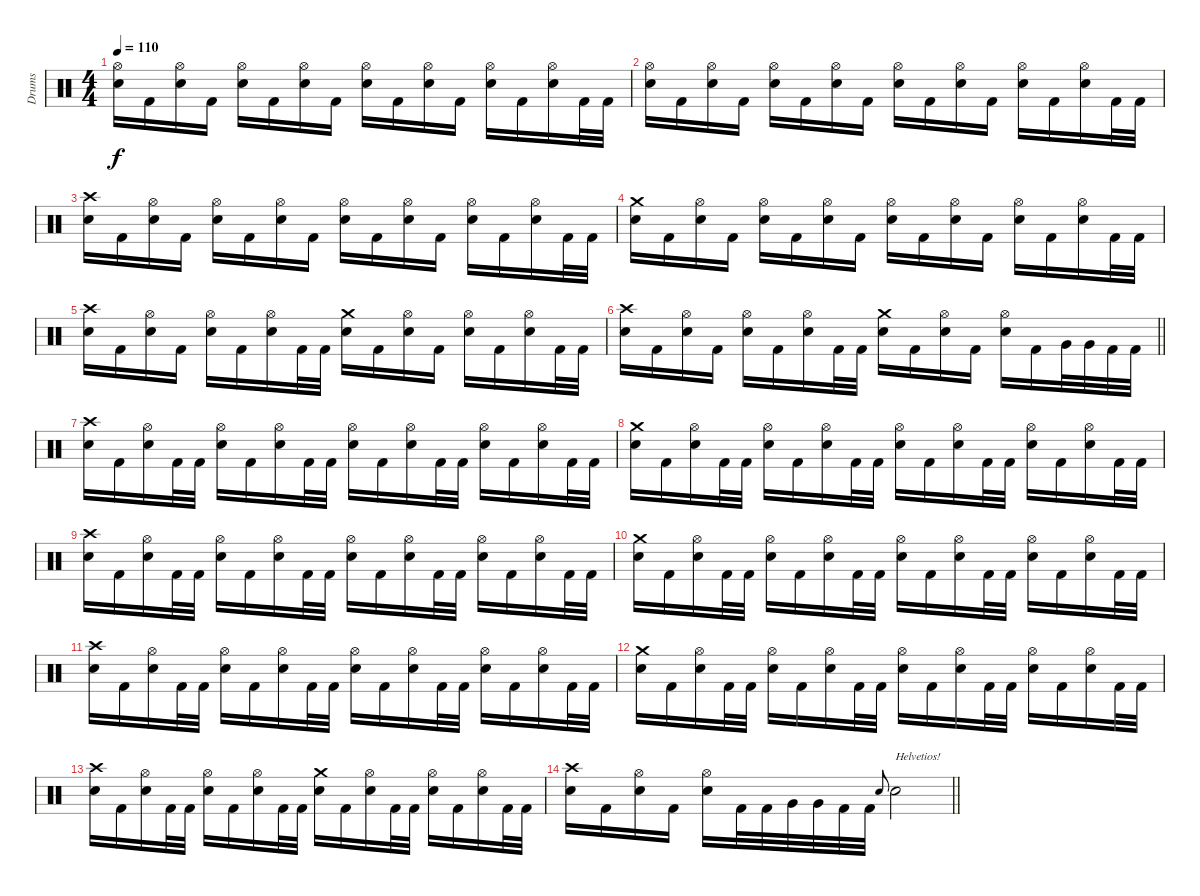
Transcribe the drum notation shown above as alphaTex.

\track ("Drums" "Drums") {instrument percussion}
\staff {score}
\articulation defaults
\ts (4 4)
\tempo 110
\clef neutral
\ks c
("Hi-Hat (open)" "Electric Snare (hit)").16{dy f} "Kick (hit) 2".16 ("Hi-Hat (open)" "Electric Snare (hit)").16 "Kick (hit) 2".16 ("Hi-Hat (open)" "Electric Snare (hit)").16 "Kick (hit) 2".16 ("Hi-Hat (open)" "Electric Snare (hit)").16 "Kick (hit) 2".16 ("Hi-Hat (open)" "Electric Snare (hit)").16 "Kick (hit) 2".16 ("Hi-Hat (open)" "Electric Snare (hit)").16 "Kick (hit) 2".16 ("Hi-Hat (open)" "Electric Snare (hit)").16 "Kick (hit) 2".16 ("Hi-Hat (open)" "Electric Snare (hit)").16 "Kick (hit) 2".32 "Kick (hit) 2".32 |
("Hi-Hat (open)" "Electric Snare (hit)").16 "Kick (hit) 2".16 ("Hi-Hat (open)" "Electric Snare (hit)").16 "Kick (hit) 2".16 ("Hi-Hat (open)" "Electric Snare (hit)").16 "Kick (hit) 2".16 ("Hi-Hat (open)" "Electric Snare (hit)").16 "Kick (hit) 2".16 ("Hi-Hat (open)" "Electric Snare (hit)").16 "Kick (hit) 2".16 ("Hi-Hat (open)" "Electric Snare (hit)").16 "Kick (hit) 2".16 ("Hi-Hat (open)" "Electric Snare (hit)").16 "Kick (hit) 2".16 ("Hi-Hat (open)" "Electric Snare (hit)").16 "Kick (hit) 2".32 "Kick (hit) 2".32 |
("Crash high (hit)" "Electric Snare (hit)").16 "Kick (hit) 2".16 ("Hi-Hat (open)" "Electric Snare (hit)").16 "Kick (hit) 2".16 ("Hi-Hat (open)" "Electric Snare (hit)").16 "Kick (hit) 2".16 ("Hi-Hat (open)" "Electric Snare (hit)").16 "Kick (hit) 2".16 ("Hi-Hat (open)" "Electric Snare (hit)").16 "Kick (hit) 2".16 ("Hi-Hat (open)" "Electric Snare (hit)").16 "Kick (hit) 2".16 ("Hi-Hat (open)" "Electric Snare (hit)").16 "Kick (hit) 2".16 ("Hi-Hat (open)" "Electric Snare (hit)").16 "Kick (hit) 2".32 "Kick (hit) 2".32 |
("Crash medium (hit)" "Electric Snare (hit)").16 "Kick (hit) 2".16 ("Hi-Hat (open)" "Electric Snare (hit)").16 "Kick (hit) 2".16 ("Hi-Hat (open)" "Electric Snare (hit)").16 "Kick (hit) 2".16 ("Hi-Hat (open)" "Electric Snare (hit)").16 "Kick (hit) 2".16 ("Hi-Hat (open)" "Electric Snare (hit)").16 "Kick (hit) 2".16 ("Hi-Hat (open)" "Electric Snare (hit)").16 "Kick (hit) 2".16 ("Hi-Hat (open)" "Electric Snare (hit)").16 "Kick (hit) 2".16 ("Hi-Hat (open)" "Electric Snare (hit)").16 "Kick (hit) 2".32 "Kick (hit) 2".32 |
("Crash high (hit)" "Electric Snare (hit)").16 "Kick (hit) 2".16 ("Hi-Hat (open)" "Electric Snare (hit)").16 "Kick (hit) 2".16 ("Hi-Hat (open)" "Electric Snare (hit)").16 "Kick (hit) 2".16 ("Hi-Hat (open)" "Electric Snare (hit)").16 "Kick (hit) 2".32 "Kick (hit) 2".32 ("Crash medium (hit)" "Electric Snare (hit)").16 "Kick (hit) 2".16 ("Hi-Hat (open)" "Electric Snare (hit)").16 "Kick (hit) 2".16 ("Hi-Hat (open)" "Electric Snare (hit)").16 "Kick (hit) 2".16 ("Hi-Hat (open)" "Electric Snare (hit)").16 "Kick (hit) 2".32 "Kick (hit) 2".32 |
\barLineRight lightlight
("Crash high (hit)" "Electric Snare (hit)").16 "Kick (hit) 2".16 ("Hi-Hat (open)" "Electric Snare (hit)").16 "Kick (hit) 2".16 ("Hi-Hat (open)" "Electric Snare (hit)").16 "Kick (hit) 2".16 ("Hi-Hat (open)" "Electric Snare (hit)").16 "Kick (hit) 2".32 "Kick (hit) 2".32 ("Crash medium (hit)" "Electric Snare (hit)").16 "Kick (hit) 2".16 ("Hi-Hat (open)" "Electric Snare (hit)").16 "Kick (hit) 2".16 ("Hi-Hat (open)" "Electric Snare (hit)").16 "Kick (hit) 2".16 "Very Low Tom (hit)".32 "Very Low Tom (hit)".32 "Kick (hit) 2".32 "Kick (hit) 2".32 |
("Crash high (hit)" "Electric Snare (hit)").16 "Kick (hit) 2".16 ("Hi-Hat (open)" "Electric Snare (hit)").16 "Kick (hit) 2".32 "Kick (hit) 2".32 ("Hi-Hat (open)" "Electric Snare (hit)").16 "Kick (hit) 2".16 ("Hi-Hat (open)" "Electric Snare (hit)").16 "Kick (hit) 2".32 "Kick (hit) 2".32 ("Hi-Hat (open)" "Electric Snare (hit)").16 "Kick (hit) 2".16 ("Hi-Hat (open)" "Electric Snare (hit)").16 "Kick (hit) 2".32 "Kick (hit) 2".32 ("Hi-Hat (open)" "Electric Snare (hit)").16 "Kick (hit) 2".16 ("Hi-Hat (open)" "Electric Snare (hit)").16 "Kick (hit) 2".32 "Kick (hit) 2".32 |
("Crash medium (hit)" "Electric Snare (hit)").16 "Kick (hit) 2".16 ("Hi-Hat (open)" "Electric Snare (hit)").16 "Kick (hit) 2".32 "Kick (hit) 2".32 ("Hi-Hat (open)" "Electric Snare (hit)").16 "Kick (hit) 2".16 ("Hi-Hat (open)" "Electric Snare (hit)").16 "Kick (hit) 2".32 "Kick (hit) 2".32 ("Hi-Hat (open)" "Electric Snare (hit)").16 "Kick (hit) 2".16 ("Hi-Hat (open)" "Electric Snare (hit)").16 "Kick (hit) 2".32 "Kick (hit) 2".32 ("Hi-Hat (open)" "Electric Snare (hit)").16 "Kick (hit) 2".16 ("Hi-Hat (open)" "Electric Snare (hit)").16 "Kick (hit) 2".32 "Kick (hit) 2".32 |
("Crash high (hit)" "Electric Snare (hit)").16 "Kick (hit) 2".16 ("Hi-Hat (open)" "Electric Snare (hit)").16 "Kick (hit) 2".32 "Kick (hit) 2".32 ("Hi-Hat (open)" "Electric Snare (hit)").16 "Kick (hit) 2".16 ("Hi-Hat (open)" "Electric Snare (hit)").16 "Kick (hit) 2".32 "Kick (hit) 2".32 ("Hi-Hat (open)" "Electric Snare (hit)").16 "Kick (hit) 2".16 ("Hi-Hat (open)" "Electric Snare (hit)").16 "Kick (hit) 2".32 "Kick (hit) 2".32 ("Hi-Hat (open)" "Electric Snare (hit)").16 "Kick (hit) 2".16 ("Hi-Hat (open)" "Electric Snare (hit)").16 "Kick (hit) 2".32 "Kick (hit) 2".32 |
("Crash medium (hit)" "Electric Snare (hit)").16 "Kick (hit) 2".16 ("Hi-Hat (open)" "Electric Snare (hit)").16 "Kick (hit) 2".32 "Kick (hit) 2".32 ("Hi-Hat (open)" "Electric Snare (hit)").16 "Kick (hit) 2".16 ("Hi-Hat (open)" "Electric Snare (hit)").16 "Kick (hit) 2".32 "Kick (hit) 2".32 ("Hi-Hat (open)" "Electric Snare (hit)").16 "Kick (hit) 2".16 ("Hi-Hat (open)" "Electric Snare (hit)").16 "Kick (hit) 2".32 "Kick (hit) 2".32 ("Hi-Hat (open)" "Electric Snare (hit)").16 "Kick (hit) 2".16 ("Hi-Hat (open)" "Electric Snare (hit)").16 "Kick (hit) 2".32 "Kick (hit) 2".32 |
("Crash high (hit)" "Electric Snare (hit)").16 "Kick (hit) 2".16 ("Hi-Hat (open)" "Electric Snare (hit)").16 "Kick (hit) 2".32 "Kick (hit) 2".32 ("Hi-Hat (open)" "Electric Snare (hit)").16 "Kick (hit) 2".16 ("Hi-Hat (open)" "Electric Snare (hit)").16 "Kick (hit) 2".32 "Kick (hit) 2".32 ("Hi-Hat (open)" "Electric Snare (hit)").16 "Kick (hit) 2".16 ("Hi-Hat (open)" "Electric Snare (hit)").16 "Kick (hit) 2".32 "Kick (hit) 2".32 ("Hi-Hat (open)" "Electric Snare (hit)").16 "Kick (hit) 2".16 ("Hi-Hat (open)" "Electric Snare (hit)").16 "Kick (hit) 2".32 "Kick (hit) 2".32 |
("Crash medium (hit)" "Electric Snare (hit)").16 "Kick (hit) 2".16 ("Hi-Hat (open)" "Electric Snare (hit)").16 "Kick (hit) 2".32 "Kick (hit) 2".32 ("Hi-Hat (open)" "Electric Snare (hit)").16 "Kick (hit) 2".16 ("Hi-Hat (open)" "Electric Snare (hit)").16 "Kick (hit) 2".32 "Kick (hit) 2".32 ("Hi-Hat (open)" "Electric Snare (hit)").16 "Kick (hit) 2".16 ("Hi-Hat (open)" "Electric Snare (hit)").16 "Kick (hit) 2".32 "Kick (hit) 2".32 ("Hi-Hat (open)" "Electric Snare (hit)").16 "Kick (hit) 2".16 ("Hi-Hat (open)" "Electric Snare (hit)").16 "Kick (hit) 2".32 "Kick (hit) 2".32 |
("Crash high (hit)" "Electric Snare (hit)").16 "Kick (hit) 2".16 ("Hi-Hat (open)" "Electric Snare (hit)").16 "Kick (hit) 2".32 "Kick (hit) 2".32 ("Hi-Hat (open)" "Electric Snare (hit)").16 "Kick (hit) 2".16 ("Hi-Hat (open)" "Electric Snare (hit)").16 "Kick (hit) 2".32 "Kick (hit) 2".32 ("Crash medium (hit)" "Electric Snare (hit)").16 "Kick (hit) 2".16 ("Hi-Hat (open)" "Electric Snare (hit)").16 "Kick (hit) 2".32 "Kick (hit) 2".32 ("Hi-Hat (open)" "Electric Snare (hit)").16 "Kick (hit) 2".16 ("Hi-Hat (open)" "Electric Snare (hit)").16 "Kick (hit) 2".32 "Kick (hit) 2".32 |
\barLineRight lightlight
("Crash high (hit)" "Electric Snare (hit)").16 "Kick (hit) 2".16 ("Hi-Hat (open)" "Electric Snare (hit)").16 "Kick (hit) 2".16 ("Hi-Hat (open)" "Electric Snare (hit)").16 "Kick (hit) 2".32 "Kick (hit) 2".32 "Very Low Tom (hit)".32 "Very Low Tom (hit)".32 "Kick (hit) 2".32 "Kick (hit) 2".32 "Electric Snare (hit)".8{gr onbeat} "Electric Snare (hit)".2{txt "Helvetios!"}
